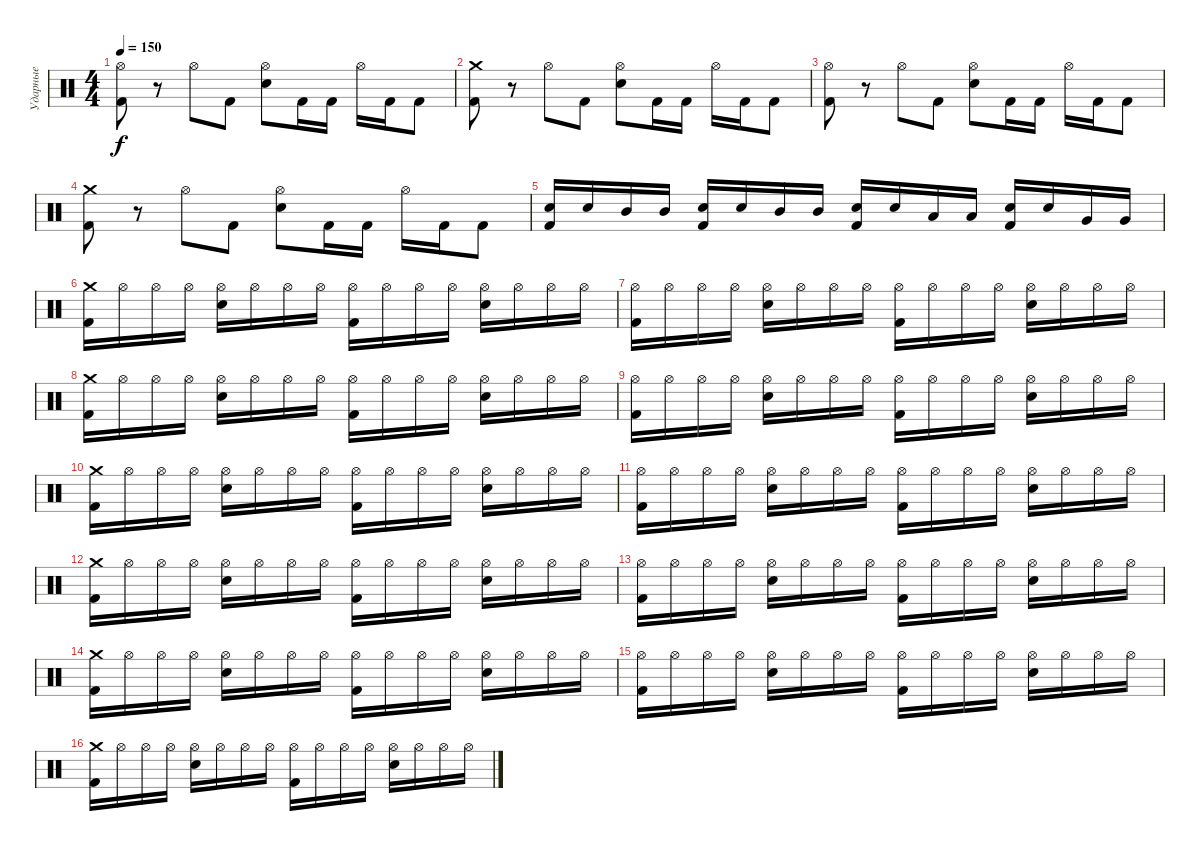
\track ("Ударные" "Ударные") {instrument percussion}
\staff {score}
\articulation defaults
\ts (4 4)
\tempo 150
\clef neutral
\ks c
("Hi-Hat (open)" "Kick (hit) 2").8{dy f} r.8 "Hi-Hat (open)".8 "Kick (hit) 2".8 ("Hi-Hat (open)" "Electric Snare (hit)").8 "Kick (hit) 2".16 "Kick (hit) 2".16 "Hi-Hat (open)".16 "Kick (hit) 2".16 "Kick (hit) 2".8 |
("Crash medium (hit)" "Kick (hit) 2").8 r.8 "Hi-Hat (open)".8 "Kick (hit) 2".8 ("Hi-Hat (open)" "Electric Snare (hit)").8 "Kick (hit) 2".16 "Kick (hit) 2".16 "Hi-Hat (open)".16 "Kick (hit) 2".16 "Kick (hit) 2".8 |
("Hi-Hat (open)" "Kick (hit) 2").8 r.8 "Hi-Hat (open)".8 "Kick (hit) 2".8 ("Hi-Hat (open)" "Electric Snare (hit)").8 "Kick (hit) 2".16 "Kick (hit) 2".16 "Hi-Hat (open)".16 "Kick (hit) 2".16 "Kick (hit) 2".8 |
("Crash medium (hit)" "Kick (hit) 2").8 r.8 "Hi-Hat (open)".8 "Kick (hit) 2".8 ("Hi-Hat (open)" "Electric Snare (hit)").8 "Kick (hit) 2".16 "Kick (hit) 2".16 "Hi-Hat (open)".16 "Kick (hit) 2".16 "Kick (hit) 2".8 |
("Electric Snare (hit)" "Kick (hit) 2").16 "Electric Snare (hit)".16 "Mid Tom (hit)".16 "Mid Tom (hit)".16 ("Electric Snare (hit)" "Kick (hit) 2").16 "Electric Snare (hit)".16 "Mid Tom (hit)".16 "Mid Tom (hit)".16 ("Electric Snare (hit)" "Kick (hit) 2").16 "Electric Snare (hit)".16 "Low Tom (hit)".16 "Low Tom (hit)".16 ("Electric Snare (hit)" "Kick (hit) 2").16 "Electric Snare (hit)".16 "Very Low Tom (hit)".16 "Very Low Tom (hit)".16 |
("Crash medium (hit)" "Kick (hit) 2").16 "Hi-Hat (open)".16 "Hi-Hat (open)".16 "Hi-Hat (open)".16 ("Hi-Hat (open)" "Electric Snare (hit)").16 "Hi-Hat (open)".16 "Hi-Hat (open)".16 "Hi-Hat (open)".16 ("Hi-Hat (open)" "Kick (hit) 2").16 "Hi-Hat (open)".16 "Hi-Hat (open)".16 "Hi-Hat (open)".16 ("Hi-Hat (open)" "Electric Snare (hit)").16 "Hi-Hat (open)".16 "Hi-Hat (open)".16 "Hi-Hat (open)".16 |
("Hi-Hat (open)" "Kick (hit) 2").16 "Hi-Hat (open)".16 "Hi-Hat (open)".16 "Hi-Hat (open)".16 ("Hi-Hat (open)" "Electric Snare (hit)").16 "Hi-Hat (open)".16 "Hi-Hat (open)".16 "Hi-Hat (open)".16 ("Hi-Hat (open)" "Kick (hit) 2").16 "Hi-Hat (open)".16 "Hi-Hat (open)".16 "Hi-Hat (open)".16 ("Hi-Hat (open)" "Electric Snare (hit)").16 "Hi-Hat (open)".16 "Hi-Hat (open)".16 "Hi-Hat (open)".16 |
("Crash medium (hit)" "Kick (hit) 2").16 "Hi-Hat (open)".16 "Hi-Hat (open)".16 "Hi-Hat (open)".16 ("Hi-Hat (open)" "Electric Snare (hit)").16 "Hi-Hat (open)".16 "Hi-Hat (open)".16 "Hi-Hat (open)".16 ("Hi-Hat (open)" "Kick (hit) 2").16 "Hi-Hat (open)".16 "Hi-Hat (open)".16 "Hi-Hat (open)".16 ("Hi-Hat (open)" "Electric Snare (hit)").16 "Hi-Hat (open)".16 "Hi-Hat (open)".16 "Hi-Hat (open)".16 |
("Hi-Hat (open)" "Kick (hit) 2").16 "Hi-Hat (open)".16 "Hi-Hat (open)".16 "Hi-Hat (open)".16 ("Hi-Hat (open)" "Electric Snare (hit)").16 "Hi-Hat (open)".16 "Hi-Hat (open)".16 "Hi-Hat (open)".16 ("Hi-Hat (open)" "Kick (hit) 2").16 "Hi-Hat (open)".16 "Hi-Hat (open)".16 "Hi-Hat (open)".16 ("Hi-Hat (open)" "Electric Snare (hit)").16 "Hi-Hat (open)".16 "Hi-Hat (open)".16 "Hi-Hat (open)".16 |
("Crash medium (hit)" "Kick (hit) 2").16 "Hi-Hat (open)".16 "Hi-Hat (open)".16 "Hi-Hat (open)".16 ("Hi-Hat (open)" "Electric Snare (hit)").16 "Hi-Hat (open)".16 "Hi-Hat (open)".16 "Hi-Hat (open)".16 ("Hi-Hat (open)" "Kick (hit) 2").16 "Hi-Hat (open)".16 "Hi-Hat (open)".16 "Hi-Hat (open)".16 ("Hi-Hat (open)" "Electric Snare (hit)").16 "Hi-Hat (open)".16 "Hi-Hat (open)".16 "Hi-Hat (open)".16 |
("Hi-Hat (open)" "Kick (hit) 2").16 "Hi-Hat (open)".16 "Hi-Hat (open)".16 "Hi-Hat (open)".16 ("Hi-Hat (open)" "Electric Snare (hit)").16 "Hi-Hat (open)".16 "Hi-Hat (open)".16 "Hi-Hat (open)".16 ("Hi-Hat (open)" "Kick (hit) 2").16 "Hi-Hat (open)".16 "Hi-Hat (open)".16 "Hi-Hat (open)".16 ("Hi-Hat (open)" "Electric Snare (hit)").16 "Hi-Hat (open)".16 "Hi-Hat (open)".16 "Hi-Hat (open)".16 |
("Crash medium (hit)" "Kick (hit) 2").16 "Hi-Hat (open)".16 "Hi-Hat (open)".16 "Hi-Hat (open)".16 ("Hi-Hat (open)" "Electric Snare (hit)").16 "Hi-Hat (open)".16 "Hi-Hat (open)".16 "Hi-Hat (open)".16 ("Hi-Hat (open)" "Kick (hit) 2").16 "Hi-Hat (open)".16 "Hi-Hat (open)".16 "Hi-Hat (open)".16 ("Hi-Hat (open)" "Electric Snare (hit)").16 "Hi-Hat (open)".16 "Hi-Hat (open)".16 "Hi-Hat (open)".16 |
("Hi-Hat (open)" "Kick (hit) 2").16 "Hi-Hat (open)".16 "Hi-Hat (open)".16 "Hi-Hat (open)".16 ("Hi-Hat (open)" "Electric Snare (hit)").16 "Hi-Hat (open)".16 "Hi-Hat (open)".16 "Hi-Hat (open)".16 ("Hi-Hat (open)" "Kick (hit) 2").16 "Hi-Hat (open)".16 "Hi-Hat (open)".16 "Hi-Hat (open)".16 ("Hi-Hat (open)" "Electric Snare (hit)").16 "Hi-Hat (open)".16 "Hi-Hat (open)".16 "Hi-Hat (open)".16 |
("Crash medium (hit)" "Kick (hit) 2").16 "Hi-Hat (open)".16 "Hi-Hat (open)".16 "Hi-Hat (open)".16 ("Hi-Hat (open)" "Electric Snare (hit)").16 "Hi-Hat (open)".16 "Hi-Hat (open)".16 "Hi-Hat (open)".16 ("Hi-Hat (open)" "Kick (hit) 2").16 "Hi-Hat (open)".16 "Hi-Hat (open)".16 "Hi-Hat (open)".16 ("Hi-Hat (open)" "Electric Snare (hit)").16 "Hi-Hat (open)".16 "Hi-Hat (open)".16 "Hi-Hat (open)".16 |
("Hi-Hat (open)" "Kick (hit) 2").16 "Hi-Hat (open)".16 "Hi-Hat (open)".16 "Hi-Hat (open)".16 ("Hi-Hat (open)" "Electric Snare (hit)").16 "Hi-Hat (open)".16 "Hi-Hat (open)".16 "Hi-Hat (open)".16 ("Hi-Hat (open)" "Kick (hit) 2").16 "Hi-Hat (open)".16 "Hi-Hat (open)".16 "Hi-Hat (open)".16 ("Hi-Hat (open)" "Electric Snare (hit)").16 "Hi-Hat (open)".16 "Hi-Hat (open)".16 "Hi-Hat (open)".16 |
("Crash medium (hit)" "Kick (hit) 2").16 "Hi-Hat (open)".16 "Hi-Hat (open)".16 "Hi-Hat (open)".16 ("Hi-Hat (open)" "Electric Snare (hit)").16 "Hi-Hat (open)".16 "Hi-Hat (open)".16 "Hi-Hat (open)".16 ("Hi-Hat (open)" "Kick (hit) 2").16 "Hi-Hat (open)".16 "Hi-Hat (open)".16 "Hi-Hat (open)".16 ("Hi-Hat (open)" "Electric Snare (hit)").16 "Hi-Hat (open)".16 "Hi-Hat (open)".16 "Hi-Hat (open)".16
